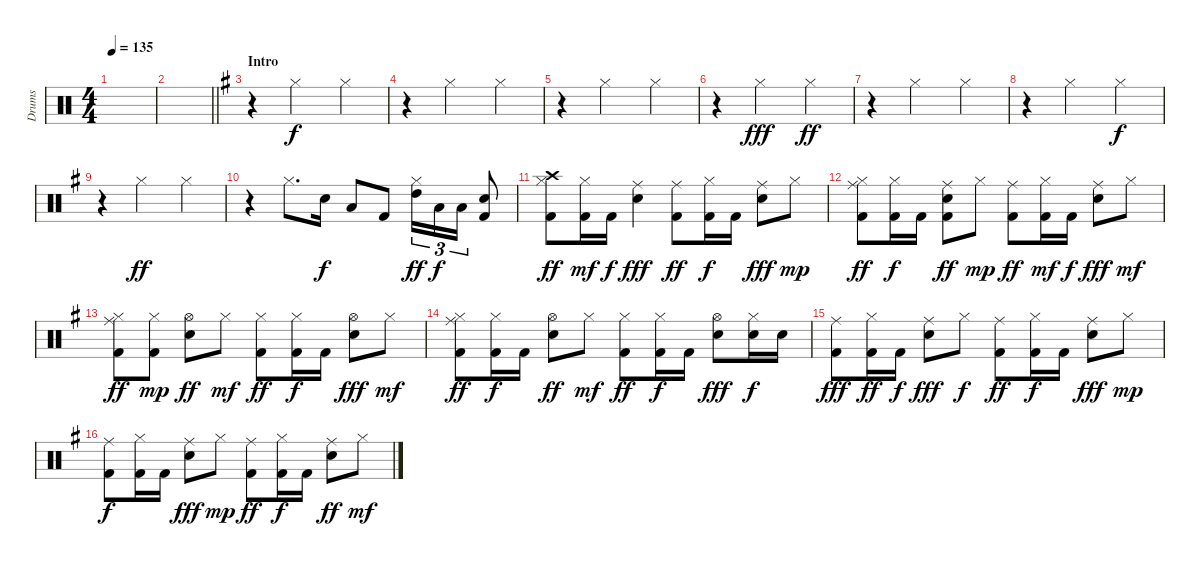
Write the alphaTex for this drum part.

\track ("Drums" "Drums") {instrument percussion}
\staff {score}
\articulation defaults
\ts (4 4)
\tempo 135
\clef neutral
\ks c
|
\barLineRight lightlight
|
\section ("" "Intro")
\ks g
r.4 "Hi-Hat (closed)".2 "Hi-Hat (closed)".4 |
r.4 "Hi-Hat (closed)".2 "Hi-Hat (closed)".4 |
r.4 "Hi-Hat (closed)".2 "Hi-Hat (closed)".4 |
r.4 "Hi-Hat (closed)".2{dy fff} "Hi-Hat (closed)".4{dy ff} |
r.4 "Hi-Hat (closed)".2 "Hi-Hat (closed)".4 |
r.4 "Hi-Hat (closed)".2 "Hi-Hat (closed)".4{dy f} |
r.4 "Hi-Hat (closed)".2{dy ff} "Hi-Hat (closed)".4 |
r.4 "Hi-Hat (closed)".8{d} "Electric Snare (hit)".16{dy f} "Low Tom (hit)".8 "Kick (hit) 2".8 ("Hi-Hat (closed)" "High Tom (hit)").16{tu (3 2) dy ff} "Low Tom (hit)".16{tu (3 2) dy f} "Low Floor Tom (hit)".16{tu (3 2)} ("Electric Snare (hit)" "Kick (hit) 2").8 |
("Hi-Hat (closed)" "Crash high (hit)" "Kick (hit) 2").8{dy ff} ("Hi-Hat (closed)" "Kick (hit) 2").16{dy mf} "Kick (hit) 2".16{dy f} ("Ride (middle)" "Electric Snare (hit)").4{dy fff} ("Ride (middle)" "Kick (hit) 2").8{dy ff} ("Hi-Hat (closed)" "Kick (hit) 2").16{dy f} "Kick (hit) 2".16 ("Ride (middle)" "Electric Snare (hit)").8{dy fff} "Hi-Hat (closed)".8{dy mp} |
("Hi-Hat (closed)" "Ride (middle)" "Kick (hit) 2").8{dy ff} ("Hi-Hat (closed)" "Kick (hit) 2").16{dy f} "Kick (hit) 2".16 ("Ride (middle)" "Electric Snare (hit)" "Kick (hit) 2").8{dy ff} "Hi-Hat (closed)".8{dy mp} ("Ride (middle)" "Kick (hit) 2").8{dy ff} ("Hi-Hat (closed)" "Kick (hit) 2").16{dy mf} "Kick (hit) 2".16{dy f} ("Ride (middle)" "Electric Snare (hit)").8{dy fff} "Hi-Hat (closed)".8{dy mf} |
("Hi-Hat (closed)" "Ride (middle)" "Kick (hit) 2").8{dy ff} ("Hi-Hat (closed)" "Kick (hit) 2").8{dy mp} ("Hi-Hat (open)" "Electric Snare (hit)").8{dy ff} "Hi-Hat (closed)".8{dy mf} ("Hi-Hat (closed)" "Kick (hit) 2").8{dy ff} ("Hi-Hat (closed)" "Kick (hit) 2").16{dy f} "Kick (hit) 2".16 ("Hi-Hat (open)" "Electric Snare (hit)").8{dy fff} "Hi-Hat (closed)".8{dy mf} |
("Hi-Hat (closed)" "Ride (middle)" "Kick (hit) 2").8{dy ff} ("Hi-Hat (closed)" "Kick (hit) 2").16{dy f} "Kick (hit) 2".16 ("Hi-Hat (open)" "Electric Snare (hit)").8{dy ff} "Hi-Hat (closed)".8{dy mf} ("Hi-Hat (closed)" "Kick (hit) 2").8{dy ff} ("Hi-Hat (closed)" "Kick (hit) 2").16{dy f} "Kick (hit) 2".16 ("Hi-Hat (open)" "Electric Snare (hit)").8{dy fff} ("Hi-Hat (closed)" "Electric Snare (hit)").16{dy f} "Electric Snare (hit)".16 |
("Ride (middle)" "Kick (hit) 2").8{dy fff} ("Hi-Hat (closed)" "Kick (hit) 2").16{dy ff} "Kick (hit) 2".16{dy f} ("Ride (middle)" "Electric Snare (hit)").8{dy fff} "Hi-Hat (closed)".8{dy f} ("Ride (middle)" "Kick (hit) 2").8{dy ff} ("Hi-Hat (closed)" "Kick (hit) 2").16{dy f} "Kick (hit) 2".16 ("Ride (middle)" "Electric Snare (hit)").8{dy fff} "Hi-Hat (closed)".8{dy mp} |
("Ride (middle)" "Kick (hit) 2").8{dy f} ("Hi-Hat (closed)" "Kick (hit) 2").16 "Kick (hit) 2".16 ("Ride (middle)" "Electric Snare (hit)").8{dy fff} "Hi-Hat (closed)".8{dy mp} ("Ride (middle)" "Kick (hit) 2").8{dy ff} ("Hi-Hat (closed)" "Kick (hit) 2").16{dy f} "Kick (hit) 2".16 ("Ride (middle)" "Electric Snare (hit)").8{dy ff} "Hi-Hat (closed)".8{dy mf}
